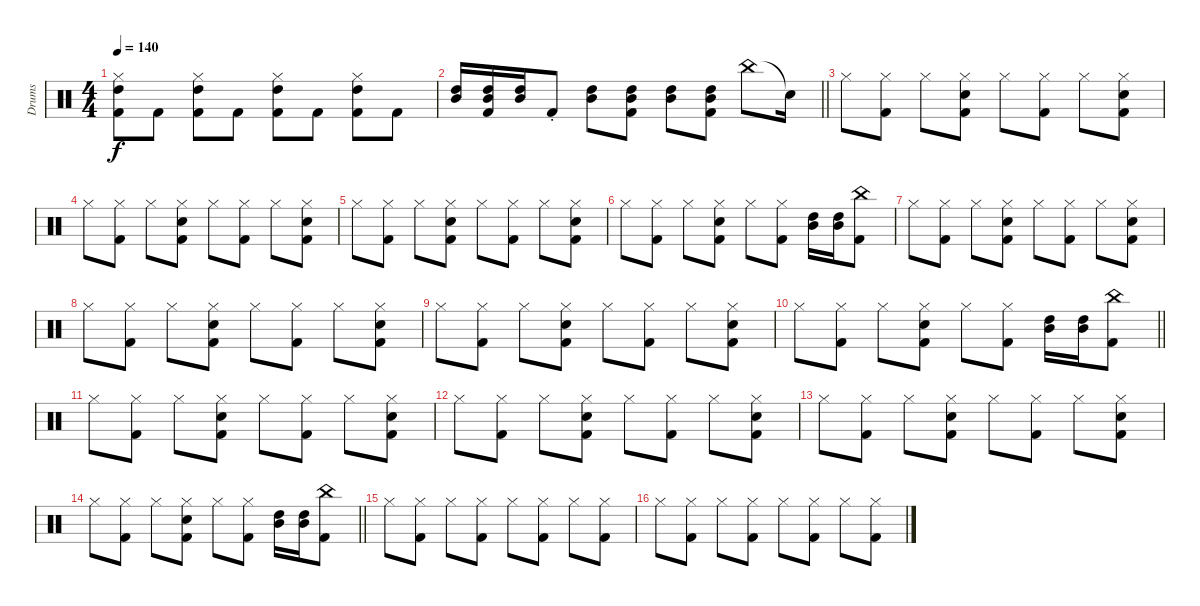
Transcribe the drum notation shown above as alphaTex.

\track ("Drums" "Drums") {instrument percussion}
\staff {score}
\articulation defaults
\ts (4 4)
\tempo 140
\clef neutral
\ks c
("Hi-Hat (closed)" "High Tom (hit)" "Kick (hit) 2").8{dy f} "Kick (hit) 2".8 ("Hi-Hat (closed)" "High Tom (hit)" "Kick (hit) 2").8 "Kick (hit) 2".8 ("Hi-Hat (closed)" "High Tom (hit)" "Kick (hit) 2").8 "Kick (hit) 2".8 ("Hi-Hat (closed)" "High Tom (hit)" "Kick (hit) 2").8 "Kick (hit) 2".8 |
\barLineRight lightlight
("Mid Tom (hit)" "High Tom (hit)").16 ("Mid Tom (hit)" "High Tom (hit)" "Kick (hit) 2").16 ("Mid Tom (hit)" "High Tom (hit)").16 "Kick (hit) 2"{st}.8 ("Mid Tom (hit)" "High Tom (hit)").8 ("Mid Tom (hit)" "High Tom (hit)" "Kick (hit) 2").8 ("Mid Tom (hit)" "High Tom (hit)").8 ("Mid Tom (hit)" "High Tom (hit)" "Kick (hit) 2").8 "China (hit)".8 "Snare (hit)"{t}.16 |
"Hi-Hat (closed)".8 ("Hi-Hat (closed)" "Kick (hit) 2").8 "Hi-Hat (closed)".8 ("Hi-Hat (closed)" "Snare (hit) 2" "Kick (hit) 2").8 "Hi-Hat (closed)".8 ("Hi-Hat (closed)" "Kick (hit) 2").8 "Hi-Hat (closed)".8 ("Hi-Hat (closed)" "Snare (hit) 2" "Kick (hit) 2").8 |
"Hi-Hat (closed)".8 ("Hi-Hat (closed)" "Kick (hit) 2").8 "Hi-Hat (closed)".8 ("Hi-Hat (closed)" "Snare (hit) 2" "Kick (hit) 2").8 "Hi-Hat (closed)".8 ("Hi-Hat (closed)" "Kick (hit) 2").8 "Hi-Hat (closed)".8 ("Hi-Hat (closed)" "Snare (hit) 2" "Kick (hit) 2").8 |
"Hi-Hat (closed)".8 ("Hi-Hat (closed)" "Kick (hit) 2").8 "Hi-Hat (closed)".8 ("Hi-Hat (closed)" "Snare (hit) 2" "Kick (hit) 2").8 "Hi-Hat (closed)".8 ("Hi-Hat (closed)" "Kick (hit) 2").8 "Hi-Hat (closed)".8 ("Hi-Hat (closed)" "Snare (hit) 2" "Kick (hit) 2").8 |
"Hi-Hat (closed)".8 ("Hi-Hat (closed)" "Kick (hit) 2").8 "Hi-Hat (closed)".8 ("Hi-Hat (closed)" "Snare (hit) 2" "Kick (hit) 2").8 "Hi-Hat (closed)".8 ("Hi-Hat (closed)" "Kick (hit) 2").8 ("Mid Tom (hit)" "High Tom (hit)").16 ("Mid Tom (hit)" "High Tom (hit)").16 ("China (hit)" "Kick (hit) 2").8 |
"Hi-Hat (closed)".8 ("Hi-Hat (closed)" "Kick (hit) 2").8 "Hi-Hat (closed)".8 ("Hi-Hat (closed)" "Snare (hit) 2" "Kick (hit) 2").8 "Hi-Hat (closed)".8 ("Hi-Hat (closed)" "Kick (hit) 2").8 "Hi-Hat (closed)".8 ("Hi-Hat (closed)" "Snare (hit) 2" "Kick (hit) 2").8 |
"Hi-Hat (closed)".8 ("Hi-Hat (closed)" "Kick (hit) 2").8 "Hi-Hat (closed)".8 ("Hi-Hat (closed)" "Snare (hit) 2" "Kick (hit) 2").8 "Hi-Hat (closed)".8 ("Hi-Hat (closed)" "Kick (hit) 2").8 "Hi-Hat (closed)".8 ("Hi-Hat (closed)" "Snare (hit) 2" "Kick (hit) 2").8 |
"Hi-Hat (closed)".8 ("Hi-Hat (closed)" "Kick (hit) 2").8 "Hi-Hat (closed)".8 ("Hi-Hat (closed)" "Snare (hit) 2" "Kick (hit) 2").8 "Hi-Hat (closed)".8 ("Hi-Hat (closed)" "Kick (hit) 2").8 "Hi-Hat (closed)".8 ("Hi-Hat (closed)" "Snare (hit) 2" "Kick (hit) 2").8 |
\barLineRight lightlight "Hi-Hat (closed)".8
("Hi-Hat (closed)" "Kick (hit) 2").8 "Hi-Hat (closed)".8 ("Hi-Hat (closed)" "Snare (hit) 2" "Kick (hit) 2").8 "Hi-Hat (closed)".8 ("Hi-Hat (closed)" "Kick (hit) 2").8 ("Mid Tom (hit)" "High Tom (hit)").16 ("Mid Tom (hit)" "High Tom (hit)").16 ("China (hit)" "Kick (hit) 2").8 |
"Hi-Hat (closed)".8 ("Hi-Hat (closed)" "Kick (hit) 2").8 "Hi-Hat (closed)".8 ("Hi-Hat (closed)" "Snare (hit) 2" "Kick (hit) 2").8 "Hi-Hat (closed)".8 ("Hi-Hat (closed)" "Kick (hit) 2").8 "Hi-Hat (closed)".8 ("Hi-Hat (closed)" "Snare (hit) 2" "Kick (hit) 2").8 |
"Hi-Hat (closed)".8 ("Hi-Hat (closed)" "Kick (hit) 2").8 "Hi-Hat (closed)".8 ("Hi-Hat (closed)" "Snare (hit) 2" "Kick (hit) 2").8 "Hi-Hat (closed)".8 ("Hi-Hat (closed)" "Kick (hit) 2").8 "Hi-Hat (closed)".8 ("Hi-Hat (closed)" "Snare (hit) 2" "Kick (hit) 2").8 |
"Hi-Hat (closed)".8 ("Hi-Hat (closed)" "Kick (hit) 2").8 "Hi-Hat (closed)".8 ("Hi-Hat (closed)" "Snare (hit) 2" "Kick (hit) 2").8 "Hi-Hat (closed)".8 ("Hi-Hat (closed)" "Kick (hit) 2").8 "Hi-Hat (closed)".8 ("Hi-Hat (closed)" "Snare (hit) 2" "Kick (hit) 2").8 |
\barLineRight lightlight "Hi-Hat (closed)".8
("Hi-Hat (closed)" "Kick (hit) 2").8 "Hi-Hat (closed)".8 ("Hi-Hat (closed)" "Snare (hit) 2" "Kick (hit) 2").8 "Hi-Hat (closed)".8 ("Hi-Hat (closed)" "Kick (hit) 2").8 ("Mid Tom (hit)" "High Tom (hit)").16 ("Mid Tom (hit)" "High Tom (hit)").16 ("China (hit)" "Kick (hit) 2").8 |
"Hi-Hat (closed)".8 ("Hi-Hat (closed)" "Kick (hit) 2").8 "Hi-Hat (closed)".8 ("Hi-Hat (closed)" "Kick (hit) 2").8 "Hi-Hat (closed)".8 ("Hi-Hat (closed)" "Kick (hit) 2").8 "Hi-Hat (closed)".8 ("Hi-Hat (closed)" "Kick (hit) 2").8 |
"Hi-Hat (closed)".8 ("Hi-Hat (closed)" "Kick (hit) 2").8 "Hi-Hat (closed)".8 ("Hi-Hat (closed)" "Kick (hit) 2").8 "Hi-Hat (closed)".8 ("Hi-Hat (closed)" "Kick (hit) 2").8 "Hi-Hat (closed)".8 ("Hi-Hat (closed)" "Kick (hit) 2").8
